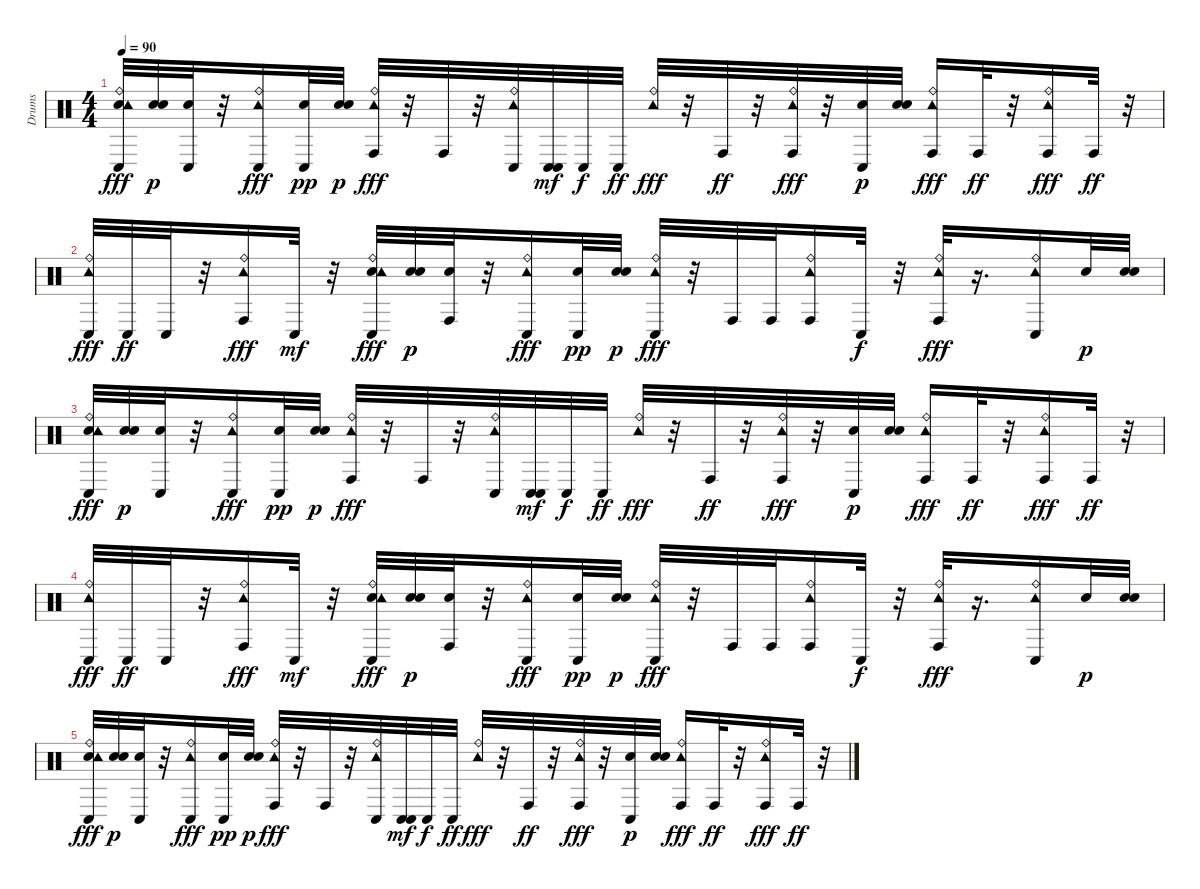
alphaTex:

\track ("Drums" "Drums") {instrument percussion}
\staff {score}
\articulation defaults
\ts (4 4)
\tempo 90
\clef neutral
\ks c
("Conga low (hit)" "Ride (bell)" "Electric Snare (hit)" "Tambourine (hit)").32{dy fff} ("Electric Snare (hit)" "Electric Snare (hit)").32{dy p} ("Conga low (hit)" "Electric Snare (hit)").32 r.32 ("Conga low (hit)" "Ride (bell)" "Tambourine (hit)").16{dy fff} ("Conga low (hit)" "Electric Snare (hit)").32{dy pp} ("Electric Snare (hit)" "Electric Snare (hit)").32{dy p} ("Conga high (hit)" "Ride (bell)" "Tambourine (hit)").32{dy fff} r.32 "Conga high (hit)".32 r.32 ("Conga low (hit)" "Ride (bell)" "Tambourine (hit)").32 ("Conga low (hit)" "Conga low (hit)").32{dy mf} "Conga low (hit)".32{dy f} "Conga low (hit)".32{dy ff} ("Ride (bell)" "Tambourine (hit)").32{dy fff} r.32 "Conga high (hit)".32{dy ff} r.32 ("Ride (bell)" "Conga high (hit)" "Tambourine (hit)").32{dy fff} r.32 ("Conga low (hit)" "Electric Snare (hit)").32{dy p} ("Electric Snare (hit)" "Electric Snare (hit)").32 ("Conga high (hit)" "Ride (bell)" "Tambourine (hit)").16{dy fff} "Conga high (hit)".32{dy ff} r.32 ("Ride (bell)" "Conga high (hit)" "Tambourine (hit)").16{dy fff} "Conga high (hit)".32{dy ff} r.32 |
("Conga low (hit)" "Ride (bell)" "Tambourine (hit)").32{dy fff volume 13} "Conga low (hit)".32{dy ff} "Conga low (hit)".32 r.32 ("Conga high (hit)" "Ride (bell)" "Tambourine (hit)").16{dy fff} "Conga low (hit)".32{dy mf} r.32 ("Conga low (hit)" "Ride (bell)" "Electric Snare (hit)" "Tambourine (hit)").32{dy fff} ("Electric Snare (hit)" "Electric Snare (hit)").32{dy p} ("Conga high (hit)" "Electric Snare (hit)").32 r.32 ("Conga low (hit)" "Ride (bell)" "Tambourine (hit)").16{dy fff} ("Conga low (hit)" "Electric Snare (hit)").32{dy pp} ("Electric Snare (hit)" "Electric Snare (hit)").32{dy p} ("Ride (bell)" "Tambourine (hit)" "Conga low (hit)").32{dy fff} r.32 "Conga high (hit)".32{volume 13} "Conga high (hit)".32{volume 13} ("Ride (bell)" "Tambourine (hit)" "Conga high (hit)").16{volume 13} "Conga low (hit)".32{dy f volume 12} r.32 ("Conga high (hit)" "Ride (bell)" "Tambourine (hit)").32{dy fff volume 12} r.16{d} ("Conga low (hit)" "Ride (bell)" "Tambourine (hit)").16{volume 12} "Electric Snare (hit)".32{dy p volume 12} ("Electric Snare (hit)" "Electric Snare (hit)").32{volume 12} |
("Conga low (hit)" "Ride (bell)" "Electric Snare (hit)" "Tambourine (hit)").32{dy fff volume 11} ("Electric Snare (hit)" "Electric Snare (hit)").32{dy p} ("Conga low (hit)" "Electric Snare (hit)").32{volume 11} r.32 ("Conga low (hit)" "Ride (bell)" "Tambourine (hit)").16{dy fff volume 11} ("Conga low (hit)" "Electric Snare (hit)").32{dy pp volume 11} ("Electric Snare (hit)" "Electric Snare (hit)").32{dy p volume 11} ("Conga high (hit)" "Ride (bell)" "Tambourine (hit)").32{dy fff volume 10} r.32 "Conga high (hit)".32{volume 10} r.32 ("Conga low (hit)" "Ride (bell)" "Tambourine (hit)").32{volume 10} ("Conga low (hit)" "Conga low (hit)").32{dy mf volume 10} "Conga low (hit)".32{dy f} "Conga low (hit)".32{dy ff volume 10} ("Ride (bell)" "Tambourine (hit)").32{dy fff volume 10} r.32 "Conga high (hit)".32{dy ff volume 9} r.32 ("Ride (bell)" "Conga high (hit)" "Tambourine (hit)").32{dy fff volume 9} r.32 ("Conga low (hit)" "Electric Snare (hit)").32{dy p volume 9} ("Electric Snare (hit)" "Electric Snare (hit)").32{volume 9} ("Conga high (hit)" "Ride (bell)" "Tambourine (hit)").16{dy fff volume 9} "Conga high (hit)".32{dy ff volume 8} r.32 ("Ride (bell)" "Conga high (hit)" "Tambourine (hit)").16{dy fff volume 8} "Conga high (hit)".32{dy ff volume 8} r.32 |
("Conga low (hit)" "Ride (bell)" "Tambourine (hit)").32{dy fff volume 8} "Conga low (hit)".32{dy ff volume 8} "Conga low (hit)".32{volume 8} r.32 ("Conga high (hit)" "Ride (bell)" "Tambourine (hit)").16{dy fff volume 7} "Conga low (hit)".32{dy mf volume 7} r.32 ("Conga low (hit)" "Ride (bell)" "Electric Snare (hit)" "Tambourine (hit)").32{dy fff volume 7} ("Electric Snare (hit)" "Electric Snare (hit)").32{dy p volume 7} ("Conga high (hit)" "Electric Snare (hit)").32{volume 7} r.32 ("Conga low (hit)" "Ride (bell)" "Tambourine (hit)").16{dy fff volume 6} ("Conga low (hit)" "Electric Snare (hit)").32{dy pp volume 6} ("Electric Snare (hit)" "Electric Snare (hit)").32{dy p} ("Ride (bell)" "Tambourine (hit)" "Conga low (hit)").32{dy fff} r.32 "Conga high (hit)".32{volume 6} "Conga high (hit)".32{volume 6} ("Ride (bell)" "Tambourine (hit)" "Conga high (hit)").16{volume 6} "Conga low (hit)".32{dy f volume 5} r.32 ("Conga high (hit)" "Ride (bell)" "Tambourine (hit)").32{dy fff volume 5} r.16{d} ("Conga low (hit)" "Ride (bell)" "Tambourine (hit)").16{volume 5} "Electric Snare (hit)".32{dy p volume 4} ("Electric Snare (hit)" "Electric Snare (hit)").32 |
("Conga low (hit)" "Ride (bell)" "Electric Snare (hit)" "Tambourine (hit)").32{dy fff volume 4} ("Electric Snare (hit)" "Electric Snare (hit)").32{dy p} ("Conga low (hit)" "Electric Snare (hit)").32 r.32 ("Conga low (hit)" "Ride (bell)" "Tambourine (hit)").16{dy fff volume 4} ("Conga low (hit)" "Electric Snare (hit)").32{dy pp volume 4} ("Electric Snare (hit)" "Electric Snare (hit)").32{dy p volume 4} ("Conga high (hit)" "Ride (bell)" "Tambourine (hit)").32{dy fff volume 3} r.32 "Conga high (hit)".32{volume 3} r.32 ("Conga low (hit)" "Ride (bell)" "Tambourine (hit)").32{volume 3} ("Conga low (hit)" "Conga low (hit)").32{dy mf volume 3} "Conga low (hit)".32{dy f volume 3} "Conga low (hit)".32{dy ff volume 3} ("Ride (bell)" "Tambourine (hit)").32{dy fff volume 2} r.32 "Conga high (hit)".32{dy ff volume 2} r.32 ("Ride (bell)" "Conga high (hit)" "Tambourine (hit)").32{dy fff volume 2} r.32 ("Conga low (hit)" "Electric Snare (hit)").32{dy p volume 2} ("Electric Snare (hit)" "Electric Snare (hit)").32{volume 2} ("Conga high (hit)" "Ride (bell)" "Tambourine (hit)").16{dy fff volume 2} "Conga high (hit)".32{dy ff volume 1} r.32 ("Ride (bell)" "Conga high (hit)" "Tambourine (hit)").16{dy fff volume 1} "Conga high (hit)".32{dy ff volume 1} r.32
